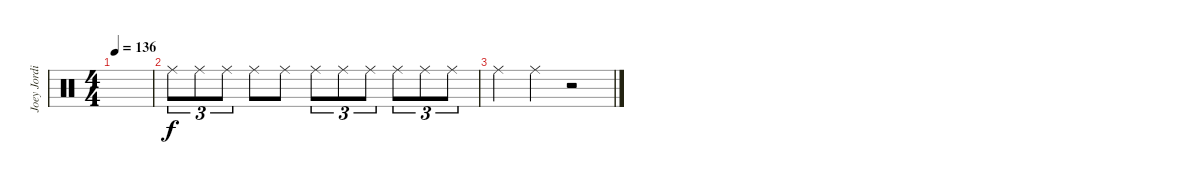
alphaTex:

\track ("Joey Jordison" "Joey Jordi") {instrument percussion}
\staff {score}
\articulation defaults
\ts (4 4)
\tempo 136
\clef neutral
\ks c
|
"Ride (middle)".8{tu (3 2)} "Ride (middle)".8{tu (3 2)} "Ride (middle)".8{tu (3 2)} "Ride (middle)".8 "Ride (middle)".8 "Ride (middle)".8{tu (3 2)} "Ride (middle)".8{tu (3 2)} "Ride (middle)".8{tu (3 2)} "Ride (middle)".8{tu (3 2)} "Ride (middle)".8{tu (3 2)} "Ride (middle)".8{tu (3 2)} |
"Ride (middle)".4 "Ride (middle)".4 r.2
